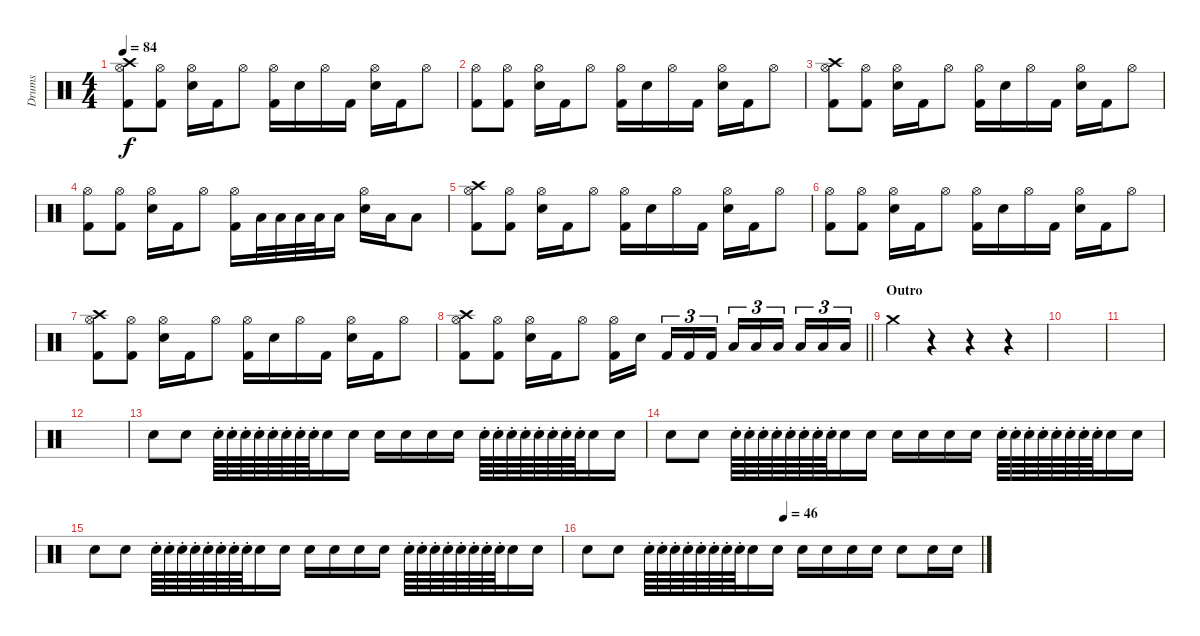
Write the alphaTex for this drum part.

\track ("Drums" "Drums") {instrument percussion}
\staff {score}
\articulation defaults
\ts (4 4)
\tempo 84
\clef neutral
\ks c
("Crash high (hit)" "Kick (hit) 2" "Hi-Hat (open)").8{dy f} ("Kick (hit) 2" "Hi-Hat (open)").8 ("Snare (hit) 2" "Hi-Hat (open)").16 "Kick (hit) 2".16 "Hi-Hat (open)".8 ("Kick (hit) 2" "Hi-Hat (open)").16 "Snare (hit) 2".16 "Hi-Hat (open)".16 "Kick (hit) 2".16 ("Snare (hit) 2" "Hi-Hat (open)").16 "Kick (hit) 2".16 "Hi-Hat (open)".8 |
("Kick (hit) 2" "Hi-Hat (open)").8 ("Kick (hit) 2" "Hi-Hat (open)").8 ("Snare (hit) 2" "Hi-Hat (open)").16 "Kick (hit) 2".16 "Hi-Hat (open)".8 ("Kick (hit) 2" "Hi-Hat (open)").16 "Snare (hit) 2".16 "Hi-Hat (open)".16 "Kick (hit) 2".16 ("Snare (hit) 2" "Hi-Hat (open)").16 "Kick (hit) 2".16 "Hi-Hat (open)".8 |
("Crash high (hit)" "Kick (hit) 2" "Hi-Hat (open)").8 ("Kick (hit) 2" "Hi-Hat (open)").8 ("Snare (hit) 2" "Hi-Hat (open)").16 "Kick (hit) 2".16 "Hi-Hat (open)".8 ("Kick (hit) 2" "Hi-Hat (open)").16 "Snare (hit) 2".16 "Hi-Hat (open)".16 "Kick (hit) 2".16 ("Snare (hit) 2" "Hi-Hat (open)").16 "Kick (hit) 2".16 "Hi-Hat (open)".8 |
("Kick (hit) 2" "Hi-Hat (open)").8 ("Kick (hit) 2" "Hi-Hat (open)").8 ("Snare (hit) 2" "Hi-Hat (open)").16 "Kick (hit) 2".16 "Hi-Hat (open)".8 ("Kick (hit) 2" "Hi-Hat (open)").16 "Low Tom (hit)".32 "Low Tom (hit)".32 "Low Tom (hit)".32 "Low Tom (hit)".32 "Low Tom (hit)".16 ("Snare (hit) 2" "Hi-Hat (open)").16 "Low Tom (hit)".16 "Low Floor Tom (hit)".8 |
("Crash high (hit)" "Kick (hit) 2" "Hi-Hat (open)").8 ("Kick (hit) 2" "Hi-Hat (open)").8 ("Snare (hit) 2" "Hi-Hat (open)").16 "Kick (hit) 2".16 "Hi-Hat (open)".8 ("Kick (hit) 2" "Hi-Hat (open)").16 "Snare (hit) 2".16 "Hi-Hat (open)".16 "Kick (hit) 2".16 ("Snare (hit) 2" "Hi-Hat (open)").16 "Kick (hit) 2".16 "Hi-Hat (open)".8 |
("Kick (hit) 2" "Hi-Hat (open)").8 ("Kick (hit) 2" "Hi-Hat (open)").8 ("Snare (hit) 2" "Hi-Hat (open)").16 "Kick (hit) 2".16 "Hi-Hat (open)".8 ("Kick (hit) 2" "Hi-Hat (open)").16 "Snare (hit) 2".16 "Hi-Hat (open)".16 "Kick (hit) 2".16 ("Snare (hit) 2" "Hi-Hat (open)").16 "Kick (hit) 2".16 "Hi-Hat (open)".8 |
("Crash high (hit)" "Kick (hit) 2" "Hi-Hat (open)").8 ("Kick (hit) 2" "Hi-Hat (open)").8 ("Snare (hit) 2" "Hi-Hat (open)").16 "Kick (hit) 2".16 "Hi-Hat (open)".8 ("Kick (hit) 2" "Hi-Hat (open)").16 "Snare (hit) 2".16 "Hi-Hat (open)".16 "Kick (hit) 2".16 ("Snare (hit) 2" "Hi-Hat (open)").16 "Kick (hit) 2".16 "Hi-Hat (open)".8 |
\barLineRight lightlight
("Crash high (hit)" "Kick (hit) 2" "Hi-Hat (open)").8 ("Kick (hit) 2" "Hi-Hat (open)").8 ("Snare (hit) 2" "Hi-Hat (open)").16 "Kick (hit) 2".16 "Hi-Hat (open)".8 ("Kick (hit) 2" "Hi-Hat (open)").16 "Snare (hit) 2".16{beam splitsecondary} "Kick (hit) 2".16{tu (3 2)} "Kick (hit) 2".16{tu (3 2)} "Kick (hit) 2".16{tu (3 2)} "Low Tom (hit)".16{tu (3 2)} "Low Tom (hit)".16{tu (3 2)} "Low Tom (hit)".16{tu (3 2) beam splitsecondary} "Low Floor Tom (hit)".16{tu (3 2)} "Low Floor Tom (hit)".16{tu (3 2)} "Low Floor Tom (hit)".16{tu (3 2)} |
\section ("" "Outro")
"Crash medium (hit)".4 r.4 r.4 r.4 |
|
|
|
"Snare (hit) 2".8{volume 4} "Snare (hit) 2".8 "Snare (hit) 2"{st}.64 "Snare (hit) 2"{st}.64 "Snare (hit) 2"{st}.64 "Snare (hit) 2"{st}.64 "Snare (hit) 2"{st}.64 "Snare (hit) 2"{st}.64 "Snare (hit) 2"{st}.64 "Snare (hit) 2"{st}.64 "Snare (hit) 2".16 "Snare (hit) 2".16 "Snare (hit) 2".16 "Snare (hit) 2".16 "Snare (hit) 2".16 "Snare (hit) 2".16 "Snare (hit) 2"{st}.64 "Snare (hit) 2"{st}.64 "Snare (hit) 2"{st}.64 "Snare (hit) 2"{st}.64 "Snare (hit) 2"{st}.64 "Snare (hit) 2"{st}.64 "Snare (hit) 2"{st}.64 "Snare (hit) 2"{st}.64 "Snare (hit) 2".16 "Snare (hit) 2".16 |
"Snare (hit) 2".8 "Snare (hit) 2".8 "Snare (hit) 2"{st}.64 "Snare (hit) 2"{st}.64 "Snare (hit) 2"{st}.64 "Snare (hit) 2"{st}.64 "Snare (hit) 2"{st}.64 "Snare (hit) 2"{st}.64 "Snare (hit) 2"{st}.64 "Snare (hit) 2"{st}.64 "Snare (hit) 2".16 "Snare (hit) 2".16 "Snare (hit) 2".16 "Snare (hit) 2".16 "Snare (hit) 2".16 "Snare (hit) 2".16 "Snare (hit) 2"{st}.64 "Snare (hit) 2"{st}.64 "Snare (hit) 2"{st}.64 "Snare (hit) 2"{st}.64 "Snare (hit) 2"{st}.64 "Snare (hit) 2"{st}.64 "Snare (hit) 2"{st}.64 "Snare (hit) 2"{st}.64 "Snare (hit) 2".16 "Snare (hit) 2".16 |
"Snare (hit) 2".8 "Snare (hit) 2".8 "Snare (hit) 2"{st}.64 "Snare (hit) 2"{st}.64 "Snare (hit) 2"{st}.64 "Snare (hit) 2"{st}.64 "Snare (hit) 2"{st}.64 "Snare (hit) 2"{st}.64 "Snare (hit) 2"{st}.64 "Snare (hit) 2"{st}.64 "Snare (hit) 2".16 "Snare (hit) 2".16 "Snare (hit) 2".16 "Snare (hit) 2".16 "Snare (hit) 2".16 "Snare (hit) 2".16 "Snare (hit) 2"{st}.64 "Snare (hit) 2"{st}.64 "Snare (hit) 2"{st}.64 "Snare (hit) 2"{st}.64 "Snare (hit) 2"{st}.64 "Snare (hit) 2"{st}.64 "Snare (hit) 2"{st}.64 "Snare (hit) 2"{st}.64 "Snare (hit) 2".16 "Snare (hit) 2".16 |
\tempo (46 0.5)
"Snare (hit) 2".8 "Snare (hit) 2".8 "Snare (hit) 2"{st}.64 "Snare (hit) 2"{st}.64 "Snare (hit) 2"{st}.64 "Snare (hit) 2"{st}.64 "Snare (hit) 2"{st}.64 "Snare (hit) 2"{st}.64 "Snare (hit) 2"{st}.64 "Snare (hit) 2"{st}.64 "Snare (hit) 2".16 "Snare (hit) 2".16 "Snare (hit) 2".16 "Snare (hit) 2".16 "Snare (hit) 2".16 "Snare (hit) 2".16 "Snare (hit) 2".8 "Snare (hit) 2".16 "Snare (hit) 2".16
